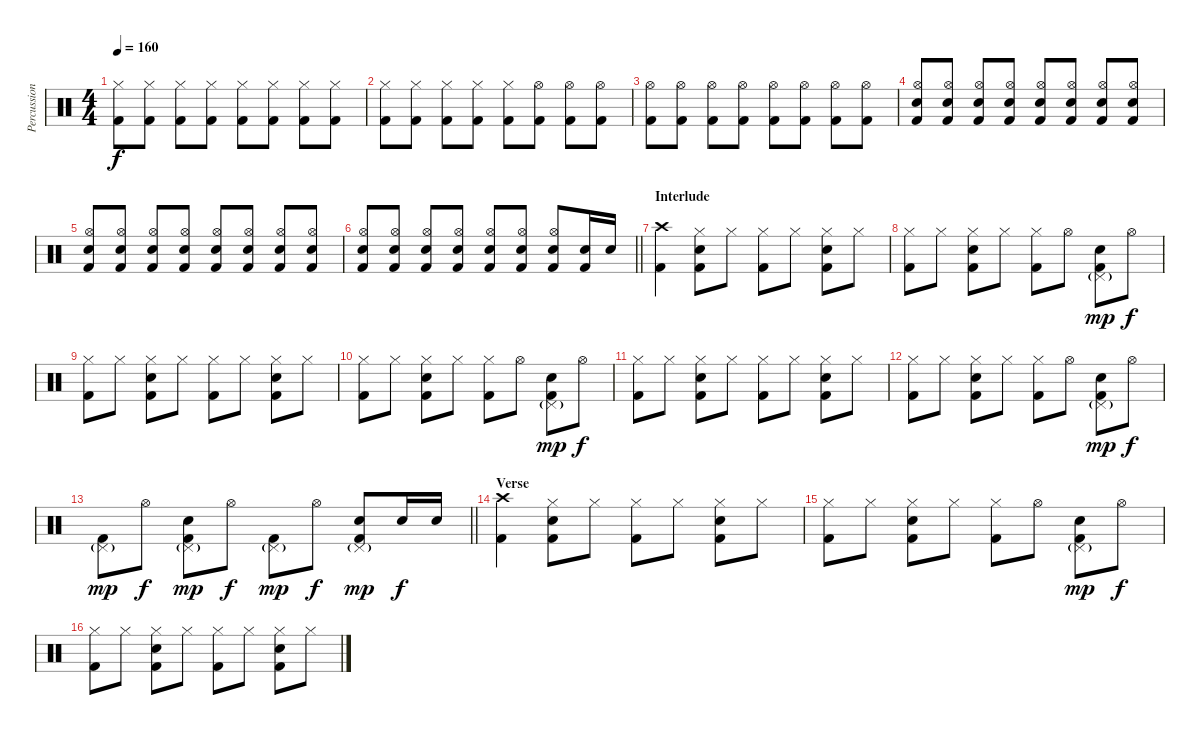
\track ("Percussion" "Percussion") {instrument percussion}
\staff {score}
\articulation defaults
\ts (4 4)
\tempo 160
\clef neutral
\ks c
("Hi-Hat (closed)" "Kick (hit) 2").8{dy f} ("Hi-Hat (closed)" "Kick (hit) 2").8 ("Hi-Hat (closed)" "Kick (hit) 2").8 ("Hi-Hat (closed)" "Kick (hit) 2").8 ("Hi-Hat (closed)" "Kick (hit) 2").8 ("Hi-Hat (closed)" "Kick (hit) 2").8 ("Hi-Hat (closed)" "Kick (hit) 2").8 ("Hi-Hat (closed)" "Kick (hit) 2").8 |
("Hi-Hat (closed)" "Kick (hit) 2").8 ("Hi-Hat (closed)" "Kick (hit) 2").8 ("Hi-Hat (closed)" "Kick (hit) 2").8 ("Hi-Hat (closed)" "Kick (hit) 2").8 ("Hi-Hat (closed)" "Kick (hit) 2").8 ("Hi-Hat (open)" "Kick (hit) 2").8 ("Hi-Hat (open)" "Kick (hit) 2").8 ("Hi-Hat (open)" "Kick (hit) 2").8 |
("Hi-Hat (open)" "Kick (hit) 2").8 ("Hi-Hat (open)" "Kick (hit) 2").8 ("Hi-Hat (open)" "Kick (hit) 2").8 ("Hi-Hat (open)" "Kick (hit) 2").8 ("Hi-Hat (open)" "Kick (hit) 2").8 ("Hi-Hat (open)" "Kick (hit) 2").8 ("Hi-Hat (open)" "Kick (hit) 2").8 ("Hi-Hat (open)" "Kick (hit) 2").8 |
("Hi-Hat (open)" "Electric Snare (hit)" "Kick (hit) 2").8 ("Hi-Hat (open)" "Electric Snare (hit)" "Kick (hit) 2").8 ("Hi-Hat (open)" "Electric Snare (hit)" "Kick (hit) 2").8 ("Hi-Hat (open)" "Electric Snare (hit)" "Kick (hit) 2").8 ("Hi-Hat (open)" "Electric Snare (hit)" "Kick (hit) 2").8 ("Hi-Hat (open)" "Electric Snare (hit)" "Kick (hit) 2").8 ("Hi-Hat (open)" "Electric Snare (hit)" "Kick (hit) 2").8 ("Hi-Hat (open)" "Electric Snare (hit)" "Kick (hit) 2").8 |
("Hi-Hat (open)" "Electric Snare (hit)" "Kick (hit) 2").8 ("Hi-Hat (open)" "Electric Snare (hit)" "Kick (hit) 2").8 ("Hi-Hat (open)" "Electric Snare (hit)" "Kick (hit) 2").8 ("Hi-Hat (open)" "Electric Snare (hit)" "Kick (hit) 2").8 ("Hi-Hat (open)" "Electric Snare (hit)" "Kick (hit) 2").8 ("Hi-Hat (open)" "Electric Snare (hit)" "Kick (hit) 2").8 ("Hi-Hat (open)" "Electric Snare (hit)" "Kick (hit) 2").8 ("Hi-Hat (open)" "Electric Snare (hit)" "Kick (hit) 2").8 |
\barLineRight lightlight
("Hi-Hat (open)" "Electric Snare (hit)" "Kick (hit) 2").8 ("Hi-Hat (open)" "Electric Snare (hit)" "Kick (hit) 2").8 ("Hi-Hat (open)" "Electric Snare (hit)" "Kick (hit) 2").8 ("Hi-Hat (open)" "Electric Snare (hit)" "Kick (hit) 2").8 ("Hi-Hat (open)" "Electric Snare (hit)" "Kick (hit) 2").8 ("Hi-Hat (open)" "Electric Snare (hit)" "Kick (hit) 2").8 ("Hi-Hat (open)" "Electric Snare (hit)" "Kick (hit) 2").8 ("Electric Snare (hit)" "Kick (hit) 2").16 "Electric Snare (hit)".16 |
\section ("" "Interlude")
("Crash high (hit)" "Kick (hit) 2").4 ("Hi-Hat (closed)" "Electric Snare (hit)" "Kick (hit) 2").8 "Hi-Hat (closed)".8 ("Hi-Hat (closed)" "Kick (hit) 2").8 "Hi-Hat (closed)".8 ("Hi-Hat (closed)" "Electric Snare (hit)" "Kick (hit) 2").8 "Hi-Hat (closed)".8 |
("Hi-Hat (closed)" "Kick (hit) 2").8 "Hi-Hat (closed)".8 ("Hi-Hat (closed)" "Electric Snare (hit)" "Kick (hit) 2").8 "Hi-Hat (closed)".8 ("Hi-Hat (closed)" "Kick (hit) 2").8 "Hi-Hat (open)".8 ("Pedal Hi-Hat (hit)"{g} "Electric Snare (hit)" "Kick (hit) 2").8{dy mp} "Hi-Hat (open)".8{dy f} |
("Hi-Hat (closed)" "Kick (hit) 2").8 "Hi-Hat (closed)".8 ("Hi-Hat (closed)" "Electric Snare (hit)" "Kick (hit) 2").8 "Hi-Hat (closed)".8 ("Hi-Hat (closed)" "Kick (hit) 2").8 "Hi-Hat (closed)".8 ("Hi-Hat (closed)" "Electric Snare (hit)" "Kick (hit) 2").8 "Hi-Hat (closed)".8 |
("Hi-Hat (closed)" "Kick (hit) 2").8 "Hi-Hat (closed)".8 ("Hi-Hat (closed)" "Electric Snare (hit)" "Kick (hit) 2").8 "Hi-Hat (closed)".8 ("Hi-Hat (closed)" "Kick (hit) 2").8 "Hi-Hat (open)".8 ("Pedal Hi-Hat (hit)"{g} "Electric Snare (hit)" "Kick (hit) 2").8{dy mp} "Hi-Hat (open)".8{dy f} |
("Hi-Hat (closed)" "Kick (hit) 2").8 "Hi-Hat (closed)".8 ("Hi-Hat (closed)" "Electric Snare (hit)" "Kick (hit) 2").8 "Hi-Hat (closed)".8 ("Hi-Hat (closed)" "Kick (hit) 2").8 "Hi-Hat (closed)".8 ("Hi-Hat (closed)" "Electric Snare (hit)" "Kick (hit) 2").8 "Hi-Hat (closed)".8 |
("Hi-Hat (closed)" "Kick (hit) 2").8 "Hi-Hat (closed)".8 ("Hi-Hat (closed)" "Electric Snare (hit)" "Kick (hit) 2").8 "Hi-Hat (closed)".8 ("Hi-Hat (closed)" "Kick (hit) 2").8 "Hi-Hat (open)".8 ("Pedal Hi-Hat (hit)"{g} "Electric Snare (hit)" "Kick (hit) 2").8{dy mp} "Hi-Hat (open)".8{dy f} |
\barLineRight lightlight
("Pedal Hi-Hat (hit)"{g} "Kick (hit) 2").8{dy mp} "Hi-Hat (open)".8{dy f} ("Pedal Hi-Hat (hit)"{g} "Electric Snare (hit)" "Kick (hit) 2").8{dy mp} "Hi-Hat (open)".8{dy f} ("Pedal Hi-Hat (hit)"{g} "Kick (hit) 2").8{dy mp} "Hi-Hat (open)".8{dy f} ("Pedal Hi-Hat (hit)"{g} "Electric Snare (hit)" "Kick (hit) 2").8{dy mp} "Electric Snare (hit)".16{dy f} "Electric Snare (hit)".16 |
\section ("" "Verse")
("Crash high (hit)" "Kick (hit) 2").4 ("Hi-Hat (closed)" "Electric Snare (hit)" "Kick (hit) 2").8 "Hi-Hat (closed)".8 ("Hi-Hat (closed)" "Kick (hit) 2").8 "Hi-Hat (closed)".8 ("Hi-Hat (closed)" "Electric Snare (hit)" "Kick (hit) 2").8 "Hi-Hat (closed)".8 |
("Hi-Hat (closed)" "Kick (hit) 2").8 "Hi-Hat (closed)".8 ("Hi-Hat (closed)" "Electric Snare (hit)" "Kick (hit) 2").8 "Hi-Hat (closed)".8 ("Hi-Hat (closed)" "Kick (hit) 2").8 "Hi-Hat (open)".8 ("Pedal Hi-Hat (hit)"{g} "Electric Snare (hit)" "Kick (hit) 2").8{dy mp} "Hi-Hat (open)".8{dy f} |
("Hi-Hat (closed)" "Kick (hit) 2").8 "Hi-Hat (closed)".8 ("Hi-Hat (closed)" "Electric Snare (hit)" "Kick (hit) 2").8 "Hi-Hat (closed)".8 ("Hi-Hat (closed)" "Kick (hit) 2").8 "Hi-Hat (closed)".8 ("Hi-Hat (closed)" "Electric Snare (hit)" "Kick (hit) 2").8 "Hi-Hat (closed)".8
